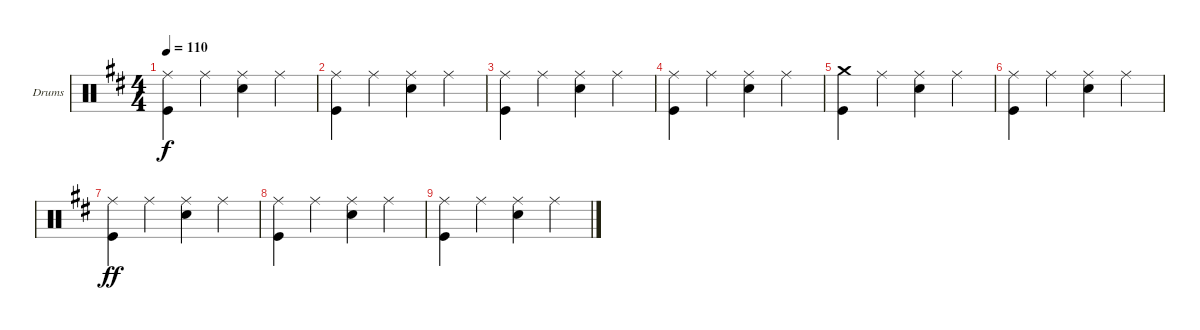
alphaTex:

\bracketExtendMode groupsimilarinstruments
\firstSystemTrackNameOrientation horizontal
\otherSystemsTrackNameOrientation horizontal
\track ("Drums" "Drums") {instrument percussion}
\staff {score}
\articulation defaults
\ts (4 4)
\scale
0.281646
\tempo 110
\accidentals auto
\clef neutral
\ottava regular
\simile none
\scale
0.252101
\ks d
("Ride (middle)" "Kick (hit)").4{dy f} "Ride (middle)".4 ("Ride (middle)" "Snare (hit) 2").4 "Ride (middle)".4 |
\scale
0.28481
\scale
0.273109 ("Ride (middle)" "Kick (hit)").4 "Ride (middle)".4 ("Ride (middle)" "Snare (hit) 2").4 "Ride (middle)".4 |
\scale
0.433544
\scale
0.47479 ("Ride (middle)" "Kick (hit)").4 "Ride (middle)".4 ("Ride (middle)" "Snare (hit) 2").4 "Ride (middle)".4 |
\scale
0.335766
\scale
0.351351 ("Kick (hit)" "Ride (middle)").4 "Ride (middle)".4 ("Ride (middle)" "Snare (hit) 2").4 "Ride (middle)".4 |
\scale
0.3309
\scale
0.324324 ("Kick (hit)" "Crash medium (hit)").4 "Ride (middle)".4 ("Ride (middle)" "Snare (hit) 2").4 "Ride (middle)".4 |
\scale
0.333333
\scale
0.324324 ("Ride (middle)" "Kick (hit)").4 "Ride (middle)".4 ("Ride (middle)" "Snare (hit) 2").4 "Ride (middle)".4 |
\scale
0.334146
\scale
0.26749 ("Ride (middle)" "Kick (hit)").4{dy ff} "Ride (middle)".4 ("Ride (middle)" "Snare (hit) 2").4 "Ride (middle)".4 |
\scale
0.331707
\scale
0.465021 ("Ride (middle)" "Kick (hit)").4 "Ride (middle)".4 ("Ride (middle)" "Snare (hit) 2").4 "Ride (middle)".4 |
\scale
0.334146
\scale
0.26749 ("Ride (middle)" "Kick (hit)").4 "Ride (middle)".4 ("Ride (middle)" "Snare (hit) 2").4 "Ride (middle)".4
